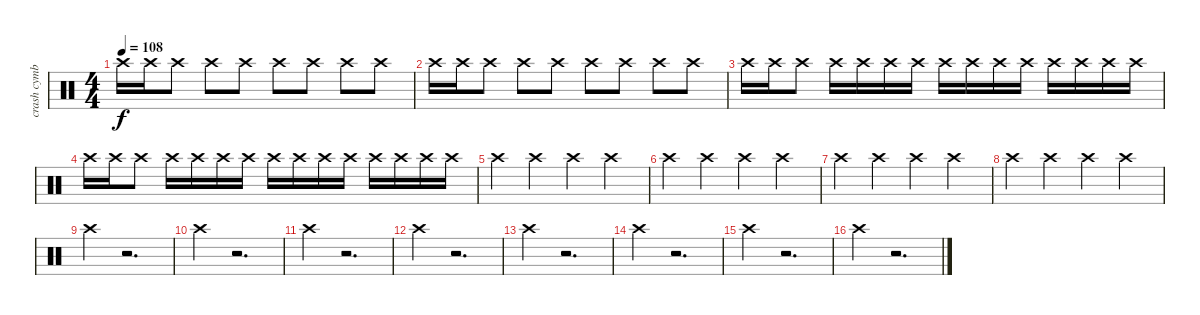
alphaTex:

\track ("crash cymbal        " "crash cymb") {instrument percussion}
\staff {score}
\articulation defaults
\ts (4 4)
\tempo 108
\clef neutral
\ks c "Crash high (hit)".16{dy f} "Crash high (hit)".16 "Crash high (hit)".8 "Crash high (hit)".8 "Crash high (hit)".8 "Crash high (hit)".8 "Crash high (hit)".8 "Crash high (hit)".8 "Crash high (hit)".8
|
"Crash high (hit)".16 "Crash high (hit)".16 "Crash high (hit)".8 "Crash high (hit)".8 "Crash high (hit)".8 "Crash high (hit)".8 "Crash high (hit)".8 "Crash high (hit)".8 "Crash high (hit)".8 |
"Crash high (hit)".16 "Crash high (hit)".16 "Crash high (hit)".8 "Crash high (hit)".16 "Crash high (hit)".16 "Crash high (hit)".16 "Crash high (hit)".16 "Crash high (hit)".16 "Crash high (hit)".16 "Crash high (hit)".16 "Crash high (hit)".16 "Crash high (hit)".16 "Crash high (hit)".16 "Crash high (hit)".16 "Crash high (hit)".16 |
"Crash high (hit)".16 "Crash high (hit)".16 "Crash high (hit)".8 "Crash high (hit)".16 "Crash high (hit)".16 "Crash high (hit)".16 "Crash high (hit)".16 "Crash high (hit)".16 "Crash high (hit)".16 "Crash high (hit)".16 "Crash high (hit)".16 "Crash high (hit)".16 "Crash high (hit)".16 "Crash high (hit)".16 "Crash high (hit)".16 |
"Crash high (hit)".4 "Crash high (hit)".4 "Crash high (hit)".4 "Crash high (hit)".4 |
"Crash high (hit)".4 "Crash high (hit)".4 "Crash high (hit)".4 "Crash high (hit)".4 |
"Crash high (hit)".4 "Crash high (hit)".4 "Crash high (hit)".4 "Crash high (hit)".4 |
"Crash high (hit)".4 "Crash high (hit)".4 "Crash high (hit)".4 "Crash high (hit)".4 |
"Crash high (hit)".4 r.2{d} |
"Crash high (hit)".4 r.2{d} |
"Crash high (hit)".4 r.2{d} |
"Crash high (hit)".4 r.2{d} |
"Crash high (hit)".4 r.2{d} |
"Crash high (hit)".4 r.2{d} |
"Crash high (hit)".4 r.2{d} |
"Crash high (hit)".4 r.2{d}
